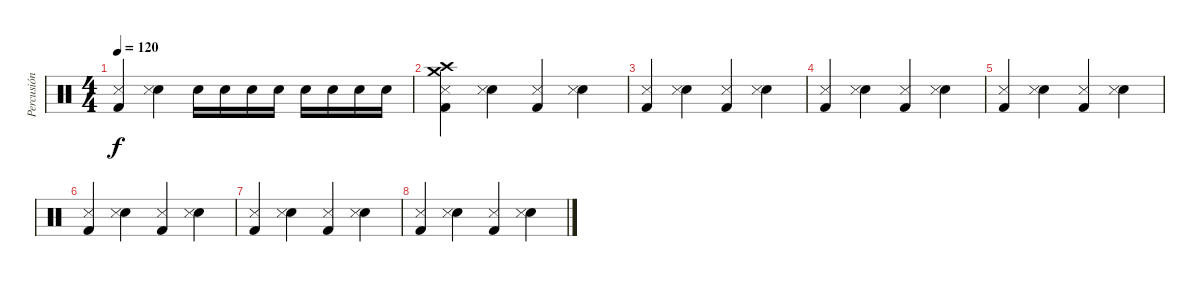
\track ("Percusión" "Percusión") {instrument percussion}
\staff {score}
\articulation defaults
\ts (4 4)
\tempo 120
\clef neutral
\ks c
("Metronome (hit)" "Kick (hit) 2").4{dy f} ("Electric Snare (hit)" "Metronome (hit)").4 "Electric Snare (hit)".16 "Electric Snare (hit)".16 "Electric Snare (hit)".16 "Electric Snare (hit)".16 "Electric Snare (hit)".16 "Electric Snare (hit)".16 "Electric Snare (hit)".16 "Electric Snare (hit)".16 |
("Crash medium (hit)" "Crash high (hit)" "Metronome (hit)" "Kick (hit) 2").4 ("Electric Snare (hit)" "Metronome (hit)").4 ("Metronome (hit)" "Kick (hit) 2").4 ("Electric Snare (hit)" "Metronome (hit)").4 |
("Metronome (hit)" "Kick (hit) 2").4 ("Electric Snare (hit)" "Metronome (hit)").4 ("Metronome (hit)" "Kick (hit) 2").4 ("Electric Snare (hit)" "Metronome (hit)").4 |
("Metronome (hit)" "Kick (hit) 2").4 ("Electric Snare (hit)" "Metronome (hit)").4 ("Metronome (hit)" "Kick (hit) 2").4 ("Electric Snare (hit)" "Metronome (hit)").4 |
("Metronome (hit)" "Kick (hit) 2").4 ("Electric Snare (hit)" "Metronome (hit)").4 ("Metronome (hit)" "Kick (hit) 2").4 ("Electric Snare (hit)" "Metronome (hit)").4 |
("Metronome (hit)" "Kick (hit) 2").4 ("Electric Snare (hit)" "Metronome (hit)").4 ("Metronome (hit)" "Kick (hit) 2").4 ("Electric Snare (hit)" "Metronome (hit)").4 |
("Metronome (hit)" "Kick (hit) 2").4 ("Electric Snare (hit)" "Metronome (hit)").4 ("Metronome (hit)" "Kick (hit) 2").4 ("Electric Snare (hit)" "Metronome (hit)").4 |
("Metronome (hit)" "Kick (hit) 2").4 ("Electric Snare (hit)" "Metronome (hit)").4 ("Metronome (hit)" "Kick (hit) 2").4 ("Electric Snare (hit)" "Metronome (hit)").4
